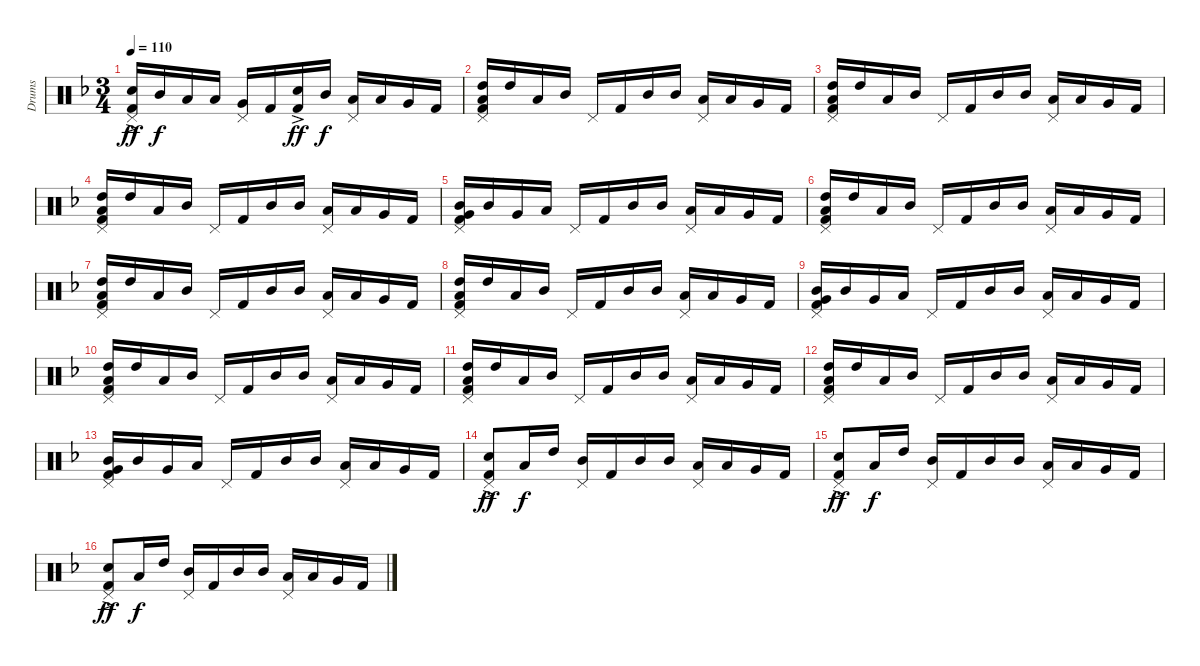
\track ("Drums" "Drums") {instrument percussion}
\staff {score}
\articulation defaults
\ts (3 4)
\tempo 110
\clef neutral
\ks dminor
("Snare (hit) 2"{ac} "Kick (hit) 2" "Pedal Hi-Hat (hit)").16{dy ff} "Mid Tom (hit)".16{dy f} "Low Tom (hit)".16 "Low Tom (hit)".16 ("Very Low Tom (hit)" "Pedal Hi-Hat (hit)").16 "Kick (hit) 2".16 ("Snare (hit) 2"{ac} "Kick (hit) 2").16{dy ff} "Mid Tom (hit)".16{dy f} ("Low Tom (hit)" "Pedal Hi-Hat (hit)").16 "Low Tom (hit)".16 "Very Low Tom (hit)".16 "Kick (hit) 2".16 |
("High Tom (hit)" "Low Tom (hit)" "Kick (hit) 2" "Pedal Hi-Hat (hit)").16 "High Tom (hit)".16 "Low Tom (hit)".16 "Mid Tom (hit)".16 "Pedal Hi-Hat (hit)".16 "Kick (hit) 2".16 "Mid Tom (hit)".16 "Mid Tom (hit)".16 ("Low Tom (hit)" "Pedal Hi-Hat (hit)").16 "Low Tom (hit)".16 "Very Low Tom (hit)".16 "Kick (hit) 2".16 |
("High Tom (hit)" "Low Tom (hit)" "Kick (hit) 2" "Pedal Hi-Hat (hit)").16 "High Tom (hit)".16 "Low Tom (hit)".16 "Mid Tom (hit)".16 "Pedal Hi-Hat (hit)".16 "Kick (hit) 2".16 "Mid Tom (hit)".16 "Mid Tom (hit)".16 ("Low Tom (hit)" "Pedal Hi-Hat (hit)").16 "Low Tom (hit)".16 "Very Low Tom (hit)".16 "Kick (hit) 2".16 |
("High Tom (hit)" "Low Tom (hit)" "Kick (hit) 2" "Pedal Hi-Hat (hit)").16 "High Tom (hit)".16 "Low Tom (hit)".16 "Mid Tom (hit)".16 "Pedal Hi-Hat (hit)".16 "Kick (hit) 2".16 "Mid Tom (hit)".16 "Mid Tom (hit)".16 ("Low Tom (hit)" "Pedal Hi-Hat (hit)").16 "Low Tom (hit)".16 "Very Low Tom (hit)".16 "Kick (hit) 2".16 |
("Mid Tom (hit)" "Very Low Tom (hit)" "Kick (hit) 2" "Pedal Hi-Hat (hit)").16 "Mid Tom (hit)".16 "Very Low Tom (hit)".16 "Low Tom (hit)".16 "Pedal Hi-Hat (hit)".16 "Kick (hit) 2".16 "Mid Tom (hit)".16 "Mid Tom (hit)".16 ("Low Tom (hit)" "Pedal Hi-Hat (hit)").16 "Low Tom (hit)".16 "Very Low Tom (hit)".16 "Kick (hit) 2".16 |
("High Tom (hit)" "Low Tom (hit)" "Kick (hit) 2" "Pedal Hi-Hat (hit)").16 "High Tom (hit)".16 "Low Tom (hit)".16 "Mid Tom (hit)".16 "Pedal Hi-Hat (hit)".16 "Kick (hit) 2".16 "Mid Tom (hit)".16 "Mid Tom (hit)".16 ("Low Tom (hit)" "Pedal Hi-Hat (hit)").16 "Low Tom (hit)".16 "Very Low Tom (hit)".16 "Kick (hit) 2".16 |
("High Tom (hit)" "Low Tom (hit)" "Kick (hit) 2" "Pedal Hi-Hat (hit)").16 "High Tom (hit)".16 "Low Tom (hit)".16 "Mid Tom (hit)".16 "Pedal Hi-Hat (hit)".16 "Kick (hit) 2".16 "Mid Tom (hit)".16 "Mid Tom (hit)".16 ("Low Tom (hit)" "Pedal Hi-Hat (hit)").16 "Low Tom (hit)".16 "Very Low Tom (hit)".16 "Kick (hit) 2".16 |
("High Tom (hit)" "Low Tom (hit)" "Kick (hit) 2" "Pedal Hi-Hat (hit)").16 "High Tom (hit)".16 "Low Tom (hit)".16 "Mid Tom (hit)".16 "Pedal Hi-Hat (hit)".16 "Kick (hit) 2".16 "Mid Tom (hit)".16 "Mid Tom (hit)".16 ("Low Tom (hit)" "Pedal Hi-Hat (hit)").16 "Low Tom (hit)".16 "Very Low Tom (hit)".16 "Kick (hit) 2".16 |
("Mid Tom (hit)" "Very Low Tom (hit)" "Kick (hit) 2" "Pedal Hi-Hat (hit)").16 "Mid Tom (hit)".16 "Very Low Tom (hit)".16 "Low Tom (hit)".16 "Pedal Hi-Hat (hit)".16 "Kick (hit) 2".16 "Mid Tom (hit)".16 "Mid Tom (hit)".16 ("Low Tom (hit)" "Pedal Hi-Hat (hit)").16 "Low Tom (hit)".16 "Very Low Tom (hit)".16 "Kick (hit) 2".16 |
("High Tom (hit)" "Low Tom (hit)" "Kick (hit) 2" "Pedal Hi-Hat (hit)").16 "High Tom (hit)".16 "Low Tom (hit)".16 "Mid Tom (hit)".16 "Pedal Hi-Hat (hit)".16 "Kick (hit) 2".16 "Mid Tom (hit)".16 "Mid Tom (hit)".16 ("Low Tom (hit)" "Pedal Hi-Hat (hit)").16 "Low Tom (hit)".16 "Very Low Tom (hit)".16 "Kick (hit) 2".16 |
("High Tom (hit)" "Low Tom (hit)" "Kick (hit) 2" "Pedal Hi-Hat (hit)").16 "High Tom (hit)".16 "Low Tom (hit)".16 "Mid Tom (hit)".16 "Pedal Hi-Hat (hit)".16 "Kick (hit) 2".16 "Mid Tom (hit)".16 "Mid Tom (hit)".16 ("Low Tom (hit)" "Pedal Hi-Hat (hit)").16 "Low Tom (hit)".16 "Very Low Tom (hit)".16 "Kick (hit) 2".16 |
("High Tom (hit)" "Low Tom (hit)" "Kick (hit) 2" "Pedal Hi-Hat (hit)").16 "High Tom (hit)".16 "Low Tom (hit)".16 "Mid Tom (hit)".16 "Pedal Hi-Hat (hit)".16 "Kick (hit) 2".16 "Mid Tom (hit)".16 "Mid Tom (hit)".16 ("Low Tom (hit)" "Pedal Hi-Hat (hit)").16 "Low Tom (hit)".16 "Very Low Tom (hit)".16 "Kick (hit) 2".16 |
("Mid Tom (hit)" "Very Low Tom (hit)" "Kick (hit) 2" "Pedal Hi-Hat (hit)").16 "Mid Tom (hit)".16 "Very Low Tom (hit)".16 "Low Tom (hit)".16 "Pedal Hi-Hat (hit)".16 "Kick (hit) 2".16 "Mid Tom (hit)".16 "Mid Tom (hit)".16 ("Low Tom (hit)" "Pedal Hi-Hat (hit)").16 "Low Tom (hit)".16 "Very Low Tom (hit)".16 "Kick (hit) 2".16 |
("Snare (hit) 2"{ac} "Kick (hit) 2" "Pedal Hi-Hat (hit)").8{dy ff} "Low Tom (hit)".16{dy f} "High Tom (hit)".16 ("Mid Tom (hit)" "Pedal Hi-Hat (hit)").16 "Kick (hit) 2".16 "Mid Tom (hit)".16 "Mid Tom (hit)".16 ("Low Tom (hit)" "Pedal Hi-Hat (hit)").16 "Low Tom (hit)".16 "Very Low Tom (hit)".16 "Kick (hit) 2".16 |
("Snare (hit) 2"{ac} "Kick (hit) 2" "Pedal Hi-Hat (hit)").8{dy ff} "Low Tom (hit)".16{dy f} "High Tom (hit)".16 ("Mid Tom (hit)" "Pedal Hi-Hat (hit)").16 "Kick (hit) 2".16 "Mid Tom (hit)".16 "Mid Tom (hit)".16 ("Low Tom (hit)" "Pedal Hi-Hat (hit)").16 "Low Tom (hit)".16 "Very Low Tom (hit)".16 "Kick (hit) 2".16 |
("Snare (hit) 2"{ac} "Kick (hit) 2" "Pedal Hi-Hat (hit)").8{dy ff} "Low Tom (hit)".16{dy f} "High Tom (hit)".16 ("Mid Tom (hit)" "Pedal Hi-Hat (hit)").16 "Kick (hit) 2".16 "Mid Tom (hit)".16 "Mid Tom (hit)".16 ("Low Tom (hit)" "Pedal Hi-Hat (hit)").16 "Low Tom (hit)".16 "Very Low Tom (hit)".16 "Kick (hit) 2".16
